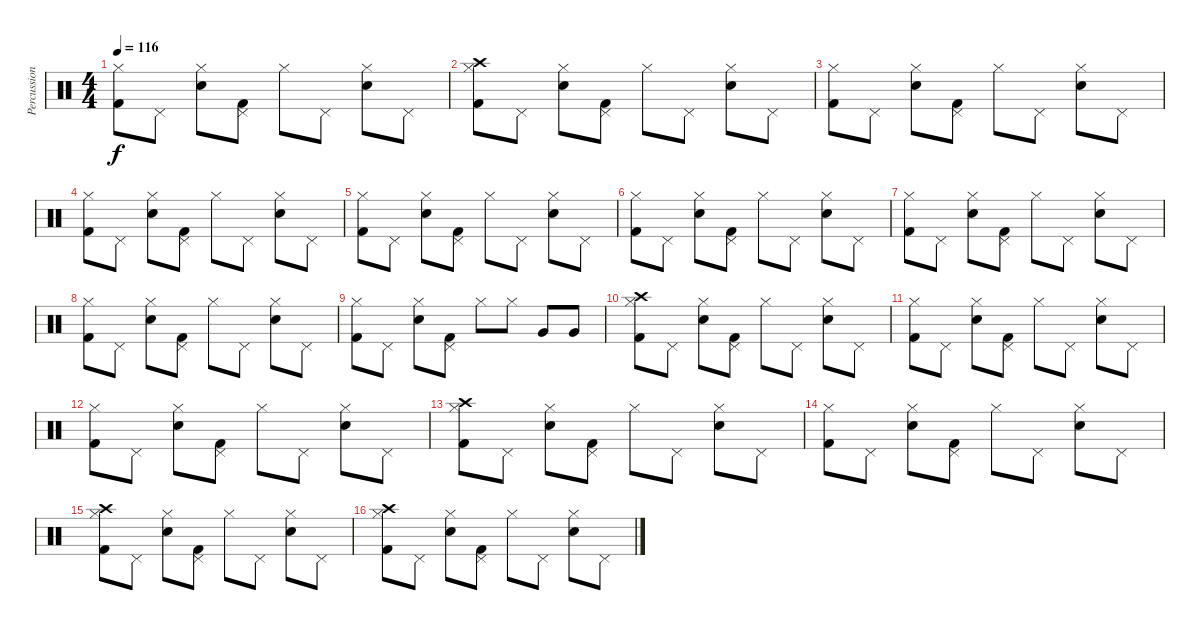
\track ("Percussions" "Percussion") {instrument percussion}
\staff {score}
\articulation defaults
\ts (4 4)
\tempo 116
\clef neutral
\ks c
("Hi-Hat (closed)" "Kick (hit) 2").8{dy f} "Pedal Hi-Hat (hit)".8 ("Hi-Hat (closed)" "Snare (hit) 2").8 ("Pedal Hi-Hat (hit)" "Kick (hit) 2").8 "Hi-Hat (closed)".8 "Pedal Hi-Hat (hit)".8 ("Hi-Hat (closed)" "Snare (hit) 2").8 "Pedal Hi-Hat (hit)".8 |
("Hi-Hat (closed)" "Crash high (hit)" "Kick (hit) 2").8 "Pedal Hi-Hat (hit)".8 ("Hi-Hat (closed)" "Snare (hit) 2").8 ("Pedal Hi-Hat (hit)" "Kick (hit) 2").8 "Hi-Hat (closed)".8 "Pedal Hi-Hat (hit)".8 ("Hi-Hat (closed)" "Snare (hit) 2").8 "Pedal Hi-Hat (hit)".8 |
("Hi-Hat (closed)" "Kick (hit) 2").8 "Pedal Hi-Hat (hit)".8 ("Hi-Hat (closed)" "Snare (hit) 2").8 ("Pedal Hi-Hat (hit)" "Kick (hit) 2").8 "Hi-Hat (closed)".8 "Pedal Hi-Hat (hit)".8 ("Hi-Hat (closed)" "Snare (hit) 2").8 "Pedal Hi-Hat (hit)".8 |
("Hi-Hat (closed)" "Kick (hit) 2").8 "Pedal Hi-Hat (hit)".8 ("Hi-Hat (closed)" "Snare (hit) 2").8 ("Pedal Hi-Hat (hit)" "Kick (hit) 2").8 "Hi-Hat (closed)".8 "Pedal Hi-Hat (hit)".8 ("Hi-Hat (closed)" "Snare (hit) 2").8 "Pedal Hi-Hat (hit)".8 |
("Hi-Hat (closed)" "Kick (hit) 2").8 "Pedal Hi-Hat (hit)".8 ("Hi-Hat (closed)" "Snare (hit) 2").8 ("Pedal Hi-Hat (hit)" "Kick (hit) 2").8 "Hi-Hat (closed)".8 "Pedal Hi-Hat (hit)".8 ("Hi-Hat (closed)" "Snare (hit) 2").8 "Pedal Hi-Hat (hit)".8 |
("Hi-Hat (closed)" "Kick (hit) 2").8 "Pedal Hi-Hat (hit)".8 ("Hi-Hat (closed)" "Snare (hit) 2").8 ("Pedal Hi-Hat (hit)" "Kick (hit) 2").8 "Hi-Hat (closed)".8 "Pedal Hi-Hat (hit)".8 ("Hi-Hat (closed)" "Snare (hit) 2").8 "Pedal Hi-Hat (hit)".8 |
("Hi-Hat (closed)" "Kick (hit) 2").8 "Pedal Hi-Hat (hit)".8 ("Hi-Hat (closed)" "Snare (hit) 2").8 ("Pedal Hi-Hat (hit)" "Kick (hit) 2").8 "Hi-Hat (closed)".8 "Pedal Hi-Hat (hit)".8 ("Hi-Hat (closed)" "Snare (hit) 2").8 "Pedal Hi-Hat (hit)".8 |
("Hi-Hat (closed)" "Kick (hit) 2").8 "Pedal Hi-Hat (hit)".8 ("Hi-Hat (closed)" "Snare (hit) 2").8 ("Pedal Hi-Hat (hit)" "Kick (hit) 2").8 "Hi-Hat (closed)".8 "Pedal Hi-Hat (hit)".8 ("Hi-Hat (closed)" "Snare (hit) 2").8 "Pedal Hi-Hat (hit)".8 |
("Hi-Hat (closed)" "Kick (hit) 2").8 "Pedal Hi-Hat (hit)".8 ("Hi-Hat (closed)" "Snare (hit) 2").8 ("Pedal Hi-Hat (hit)" "Kick (hit) 2").8 "Hi-Hat (closed)".8 "Hi-Hat (closed)".8 "Very Low Tom (hit)".8 "Very Low Tom (hit)".8 |
("Hi-Hat (closed)" "Crash high (hit)" "Kick (hit) 2").8 "Pedal Hi-Hat (hit)".8 ("Hi-Hat (closed)" "Snare (hit) 2").8 ("Pedal Hi-Hat (hit)" "Kick (hit) 2").8 "Hi-Hat (closed)".8 "Pedal Hi-Hat (hit)".8 ("Hi-Hat (closed)" "Snare (hit) 2").8 "Pedal Hi-Hat (hit)".8 |
("Hi-Hat (closed)" "Kick (hit) 2").8 "Pedal Hi-Hat (hit)".8 ("Hi-Hat (closed)" "Snare (hit) 2").8 ("Pedal Hi-Hat (hit)" "Kick (hit) 2").8 "Hi-Hat (closed)".8 "Pedal Hi-Hat (hit)".8 ("Hi-Hat (closed)" "Snare (hit) 2").8 "Pedal Hi-Hat (hit)".8 |
("Hi-Hat (closed)" "Kick (hit) 2").8 "Pedal Hi-Hat (hit)".8 ("Hi-Hat (closed)" "Snare (hit) 2").8 ("Pedal Hi-Hat (hit)" "Kick (hit) 2").8 "Hi-Hat (closed)".8 "Pedal Hi-Hat (hit)".8 ("Hi-Hat (closed)" "Snare (hit) 2").8 "Pedal Hi-Hat (hit)".8 |
("Hi-Hat (closed)" "Crash high (hit)" "Kick (hit) 2").8 "Pedal Hi-Hat (hit)".8 ("Hi-Hat (closed)" "Snare (hit) 2").8 ("Pedal Hi-Hat (hit)" "Kick (hit) 2").8 "Hi-Hat (closed)".8 "Pedal Hi-Hat (hit)".8 ("Hi-Hat (closed)" "Snare (hit) 2").8 "Pedal Hi-Hat (hit)".8 |
("Hi-Hat (closed)" "Kick (hit) 2").8 "Pedal Hi-Hat (hit)".8 ("Hi-Hat (closed)" "Snare (hit) 2").8 ("Pedal Hi-Hat (hit)" "Kick (hit) 2").8 "Hi-Hat (closed)".8 "Pedal Hi-Hat (hit)".8 ("Hi-Hat (closed)" "Snare (hit) 2").8 "Pedal Hi-Hat (hit)".8 |
("Hi-Hat (closed)" "Crash high (hit)" "Kick (hit) 2").8 "Pedal Hi-Hat (hit)".8 ("Hi-Hat (closed)" "Snare (hit) 2").8 ("Pedal Hi-Hat (hit)" "Kick (hit) 2").8 "Hi-Hat (closed)".8 "Pedal Hi-Hat (hit)".8 ("Hi-Hat (closed)" "Snare (hit) 2").8 "Pedal Hi-Hat (hit)".8 |
("Hi-Hat (closed)" "Crash high (hit)" "Kick (hit) 2").8 "Pedal Hi-Hat (hit)".8 ("Hi-Hat (closed)" "Snare (hit) 2").8 ("Pedal Hi-Hat (hit)" "Kick (hit) 2").8 "Hi-Hat (closed)".8 "Pedal Hi-Hat (hit)".8 ("Hi-Hat (closed)" "Snare (hit) 2").8 "Pedal Hi-Hat (hit)".8
